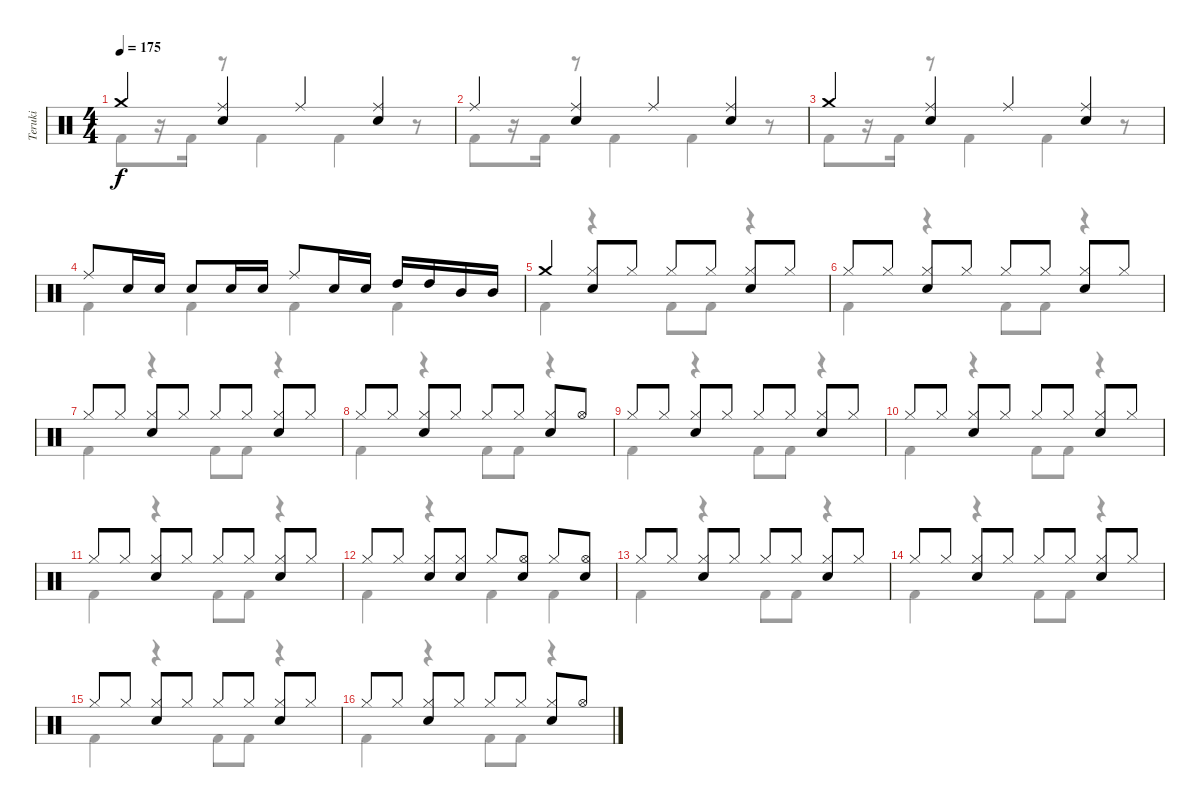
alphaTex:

\track ("Teruki" "Teruki") {instrument percussion}
\staff {score}
\articulation defaults
\voice
\ts (4 4)
\tempo 175
\clef neutral
\ks c "Crash medium (hit)".4{dy f}
("Ride (middle)" "Snare (hit) 2").4 "Ride (middle)".4 ("Ride (middle)" "Snare (hit) 2").4 |
"Ride (middle)".4 ("Ride (middle)" "Snare (hit) 2").4 "Ride (middle)".4 ("Ride (middle)" "Snare (hit) 2").4 |
"Crash medium (hit)".4 ("Ride (middle)" "Snare (hit) 2").4 "Ride (middle)".4 ("Ride (middle)" "Snare (hit) 2").4 |
"Ride (middle)".8 "Snare (hit) 2".16 "Snare (hit) 2".16 "Snare (hit) 2".8 "Snare (hit) 2".16 "Snare (hit) 2".16 "Ride (middle)".8 "Snare (hit) 2".16 "Snare (hit) 2".16 "High Tom (hit)".16 "High Tom (hit)".16 "Mid Tom (hit)".16 "Mid Tom (hit)".16 |
"Crash medium (hit)".4 ("Hi-Hat (closed)" "Snare (hit) 2").8 "Hi-Hat (closed)".8 "Hi-Hat (closed)".8 "Hi-Hat (closed)".8 ("Hi-Hat (closed)" "Snare (hit) 2").8 "Hi-Hat (closed)".8 |
"Hi-Hat (closed)".8 "Hi-Hat (closed)".8 ("Hi-Hat (closed)" "Snare (hit) 2").8 "Hi-Hat (closed)".8 "Hi-Hat (closed)".8 "Hi-Hat (closed)".8 ("Hi-Hat (closed)" "Snare (hit) 2").8 "Hi-Hat (closed)".8 |
"Hi-Hat (closed)".8 "Hi-Hat (closed)".8 ("Hi-Hat (closed)" "Snare (hit) 2").8 "Hi-Hat (closed)".8 "Hi-Hat (closed)".8 "Hi-Hat (closed)".8 ("Hi-Hat (closed)" "Snare (hit) 2").8 "Hi-Hat (closed)".8 |
"Hi-Hat (closed)".8 "Hi-Hat (closed)".8 ("Hi-Hat (closed)" "Snare (hit) 2").8 "Hi-Hat (closed)".8 "Hi-Hat (closed)".8 "Hi-Hat (closed)".8 ("Hi-Hat (closed)" "Snare (hit) 2").8 "Hi-Hat (open)".8 |
"Hi-Hat (closed)".8 "Hi-Hat (closed)".8 ("Hi-Hat (closed)" "Snare (hit) 2").8 "Hi-Hat (closed)".8 "Hi-Hat (closed)".8 "Hi-Hat (closed)".8 ("Hi-Hat (closed)" "Snare (hit) 2").8 "Hi-Hat (closed)".8 |
"Hi-Hat (closed)".8 "Hi-Hat (closed)".8 ("Hi-Hat (closed)" "Snare (hit) 2").8 "Hi-Hat (closed)".8 "Hi-Hat (closed)".8 "Hi-Hat (closed)".8 ("Hi-Hat (closed)" "Snare (hit) 2").8 "Hi-Hat (closed)".8 |
"Hi-Hat (closed)".8 "Hi-Hat (closed)".8 ("Hi-Hat (closed)" "Snare (hit) 2").8 "Hi-Hat (closed)".8 "Hi-Hat (closed)".8 "Hi-Hat (closed)".8 ("Hi-Hat (closed)" "Snare (hit) 2").8 "Hi-Hat (closed)".8 |
"Hi-Hat (closed)".8 "Hi-Hat (closed)".8 ("Hi-Hat (closed)" "Snare (hit) 2").8 ("Hi-Hat (closed)" "Snare (hit) 2").8 "Hi-Hat (closed)".8 ("Hi-Hat (open)" "Snare (hit) 2").8 "Hi-Hat (closed)".8 ("Hi-Hat (open)" "Snare (hit) 2").8 |
"Hi-Hat (closed)".8 "Hi-Hat (closed)".8 ("Hi-Hat (closed)" "Snare (hit) 2").8 "Hi-Hat (closed)".8 "Hi-Hat (closed)".8 "Hi-Hat (closed)".8 ("Hi-Hat (closed)" "Snare (hit) 2").8 "Hi-Hat (closed)".8 |
"Hi-Hat (closed)".8 "Hi-Hat (closed)".8 ("Hi-Hat (closed)" "Snare (hit) 2").8 "Hi-Hat (closed)".8 "Hi-Hat (closed)".8 "Hi-Hat (closed)".8 ("Hi-Hat (closed)" "Snare (hit) 2").8 "Hi-Hat (closed)".8 |
"Hi-Hat (closed)".8 "Hi-Hat (closed)".8 ("Hi-Hat (closed)" "Snare (hit) 2").8 "Hi-Hat (closed)".8 "Hi-Hat (closed)".8 "Hi-Hat (closed)".8 ("Hi-Hat (closed)" "Snare (hit) 2").8 "Hi-Hat (closed)".8 |
"Hi-Hat (closed)".8 "Hi-Hat (closed)".8 ("Hi-Hat (closed)" "Snare (hit) 2").8 "Hi-Hat (closed)".8 "Hi-Hat (closed)".8 "Hi-Hat (closed)".8 ("Hi-Hat (closed)" "Snare (hit) 2").8 "Hi-Hat (open)".8
\voice
\clef neutral
\ottava regular
\simile none
\ks c "Kick (hit) 2".8{dy f}
r.16 "Kick (hit) 2".16 r.8 "Kick (hit) 2".4 "Kick (hit) 2".4 r.8 |
"Kick (hit) 2".8 r.16 "Kick (hit) 2".16 r.8 "Kick (hit) 2".4 "Kick (hit) 2".4 r.8 |
"Kick (hit) 2".8 r.16 "Kick (hit) 2".16 r.8 "Kick (hit) 2".4 "Kick (hit) 2".4 r.8 |
"Kick (hit) 2".4 "Kick (hit) 2".4 "Kick (hit) 2".4 "Kick (hit) 2".4 |
"Kick (hit) 2".4 r.4 "Kick (hit) 2".8 "Kick (hit) 2".8 r.4 |
"Kick (hit) 2".4 r.4 "Kick (hit) 2".8 "Kick (hit) 2".8 r.4 |
"Kick (hit) 2".4 r.4 "Kick (hit) 2".8 "Kick (hit) 2".8 r.4 |
"Kick (hit) 2".4 r.4 "Kick (hit) 2".8 "Kick (hit) 2".8 r.4 |
"Kick (hit) 2".4 r.4 "Kick (hit) 2".8 "Kick (hit) 2".8 r.4 |
"Kick (hit) 2".4 r.4 "Kick (hit) 2".8 "Kick (hit) 2".8 r.4 |
"Kick (hit) 2".4 r.4 "Kick (hit) 2".8 "Kick (hit) 2".8 r.4 |
"Kick (hit) 2".4 r.4 "Kick (hit) 2".4 "Kick (hit) 2".4 |
"Kick (hit) 2".4 r.4 "Kick (hit) 2".8 "Kick (hit) 2".8 r.4 |
"Kick (hit) 2".4 r.4 "Kick (hit) 2".8 "Kick (hit) 2".8 r.4 |
"Kick (hit) 2".4 r.4 "Kick (hit) 2".8 "Kick (hit) 2".8 r.4 |
"Kick (hit) 2".4 r.4 "Kick (hit) 2".8 "Kick (hit) 2".8 r.4
